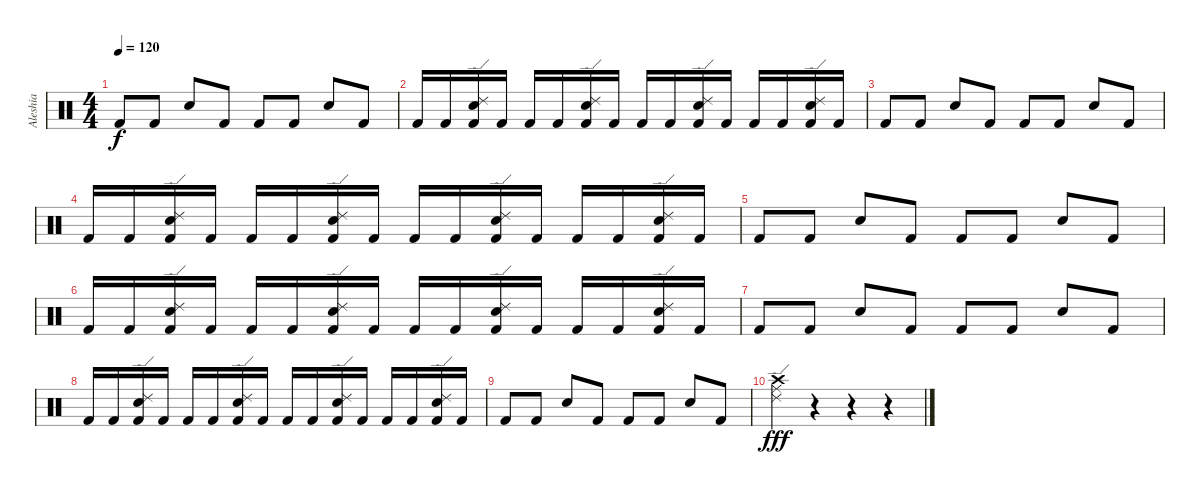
\track ("Aleshia" "Aleshia") {instrument percussion}
\staff {score}
\articulation defaults
\ts (4 4)
\tempo 120
\clef neutral
\ks c "Kick (hit) 2".8{dy f} "Kick (hit) 2".8 "Snare (hit) 2".8 "Kick (hit) 2".8 "Kick (hit) 2".8 "Kick (hit) 2".8 "Snare (hit) 2".8 "Kick (hit) 2".8
|
"Kick (hit) 2".16 "Kick (hit) 2".16 ("Ride (edge) 2" "Snare (hit) 2" "Kick (hit) 2").16 "Kick (hit) 2".16 "Kick (hit) 2".16 "Kick (hit) 2".16 ("Ride (edge) 2" "Snare (hit) 2" "Kick (hit) 2").16 "Kick (hit) 2".16 "Kick (hit) 2".16 "Kick (hit) 2".16 ("Ride (edge) 2" "Snare (hit) 2" "Kick (hit) 2").16 "Kick (hit) 2".16 "Kick (hit) 2".16 "Kick (hit) 2".16 ("Ride (edge) 2" "Snare (hit) 2" "Kick (hit) 2").16 "Kick (hit) 2".16 |
"Kick (hit) 2".8 "Kick (hit) 2".8 "Snare (hit) 2".8 "Kick (hit) 2".8 "Kick (hit) 2".8 "Kick (hit) 2".8 "Snare (hit) 2".8 "Kick (hit) 2".8 |
"Kick (hit) 2".16 "Kick (hit) 2".16 ("Ride (edge) 2" "Snare (hit) 2" "Kick (hit) 2").16 "Kick (hit) 2".16 "Kick (hit) 2".16 "Kick (hit) 2".16 ("Ride (edge) 2" "Snare (hit) 2" "Kick (hit) 2").16 "Kick (hit) 2".16 "Kick (hit) 2".16 "Kick (hit) 2".16 ("Ride (edge) 2" "Snare (hit) 2" "Kick (hit) 2").16 "Kick (hit) 2".16 "Kick (hit) 2".16 "Kick (hit) 2".16 ("Ride (edge) 2" "Snare (hit) 2" "Kick (hit) 2").16 "Kick (hit) 2".16 |
"Kick (hit) 2".8 "Kick (hit) 2".8 "Snare (hit) 2".8 "Kick (hit) 2".8 "Kick (hit) 2".8 "Kick (hit) 2".8 "Snare (hit) 2".8 "Kick (hit) 2".8 |
"Kick (hit) 2".16 "Kick (hit) 2".16 ("Ride (edge) 2" "Snare (hit) 2" "Kick (hit) 2").16 "Kick (hit) 2".16 "Kick (hit) 2".16 "Kick (hit) 2".16 ("Ride (edge) 2" "Snare (hit) 2" "Kick (hit) 2").16 "Kick (hit) 2".16 "Kick (hit) 2".16 "Kick (hit) 2".16 ("Ride (edge) 2" "Snare (hit) 2" "Kick (hit) 2").16 "Kick (hit) 2".16 "Kick (hit) 2".16 "Kick (hit) 2".16 ("Ride (edge) 2" "Snare (hit) 2" "Kick (hit) 2").16 "Kick (hit) 2".16 |
"Kick (hit) 2".8 "Kick (hit) 2".8 "Snare (hit) 2".8 "Kick (hit) 2".8 "Kick (hit) 2".8 "Kick (hit) 2".8 "Snare (hit) 2".8 "Kick (hit) 2".8 |
"Kick (hit) 2".16 "Kick (hit) 2".16 ("Ride (edge) 2" "Snare (hit) 2" "Kick (hit) 2").16 "Kick (hit) 2".16 "Kick (hit) 2".16 "Kick (hit) 2".16 ("Ride (edge) 2" "Snare (hit) 2" "Kick (hit) 2").16 "Kick (hit) 2".16 "Kick (hit) 2".16 "Kick (hit) 2".16 ("Ride (edge) 2" "Snare (hit) 2" "Kick (hit) 2").16 "Kick (hit) 2".16 "Kick (hit) 2".16 "Kick (hit) 2".16 ("Ride (edge) 2" "Snare (hit) 2" "Kick (hit) 2").16 "Kick (hit) 2".16 |
"Kick (hit) 2".8 "Kick (hit) 2".8 "Snare (hit) 2".8 "Kick (hit) 2".8 "Kick (hit) 2".8 "Kick (hit) 2".8 "Snare (hit) 2".8 "Kick (hit) 2".8 |
("Ride (middle)" "Crash high (hit)" "Ride (edge) 2").4{dy fff} r.4 r.4 r.4
